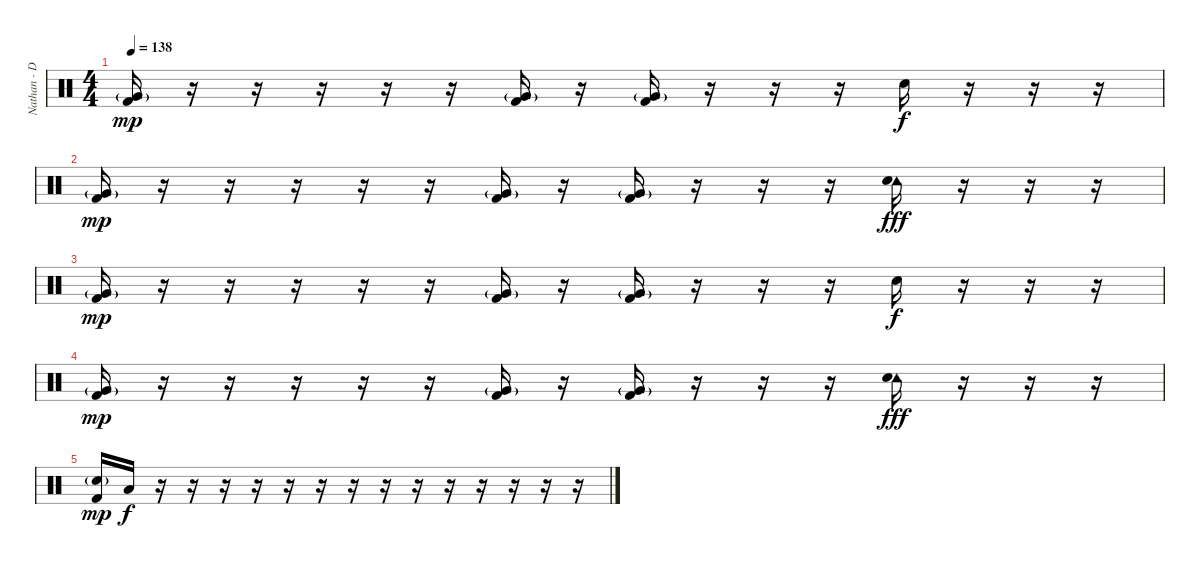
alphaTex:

\track ("Nathan - Drums" "Nathan - D") {instrument percussion}
\staff {score}
\articulation defaults
\ts (4 4)
\tempo 138
\clef neutral
\ks c
("Very Low Tom (hit)"{g} "Kick (hit) 2").16{dy mp} r.16 r.16 r.16 r.16 r.16 ("Very Low Tom (hit)"{g} "Kick (hit) 2").16 r.16 ("Very Low Tom (hit)"{g} "Kick (hit) 2").16 r.16 r.16 r.16 "Electric Snare (hit)".16{dy f} r.16 r.16 r.16 |
("Very Low Tom (hit)"{g} "Kick (hit) 2").16{dy mp} r.16 r.16 r.16 r.16 r.16 ("Very Low Tom (hit)"{g} "Kick (hit) 2").16 r.16 ("Very Low Tom (hit)"{g} "Kick (hit) 2").16 r.16 r.16 r.16 ("Tambourine (hit)" "Electric Snare (hit)").16{dy fff} r.16 r.16 r.16 |
("Very Low Tom (hit)"{g} "Kick (hit) 2").16{dy mp} r.16 r.16 r.16 r.16 r.16 ("Very Low Tom (hit)"{g} "Kick (hit) 2").16 r.16 ("Very Low Tom (hit)"{g} "Kick (hit) 2").16 r.16 r.16 r.16 "Electric Snare (hit)".16{dy f} r.16 r.16 r.16 |
("Very Low Tom (hit)"{g} "Kick (hit) 2").16{dy mp} r.16 r.16 r.16 r.16 r.16 ("Very Low Tom (hit)"{g} "Kick (hit) 2").16 r.16 ("Very Low Tom (hit)"{g} "Kick (hit) 2").16 r.16 r.16 r.16 ("Tambourine (hit)" "Electric Snare (hit)").16{dy fff} r.16 r.16 r.16 |
("Snare (hit) 2"{g} "Kick (hit) 2").16{dy mp} "Low Tom (hit)".16{dy f} r.16 r.16 r.16 r.16 r.16 r.16 r.16 r.16 r.16 r.16 r.16 r.16 r.16 r.16
